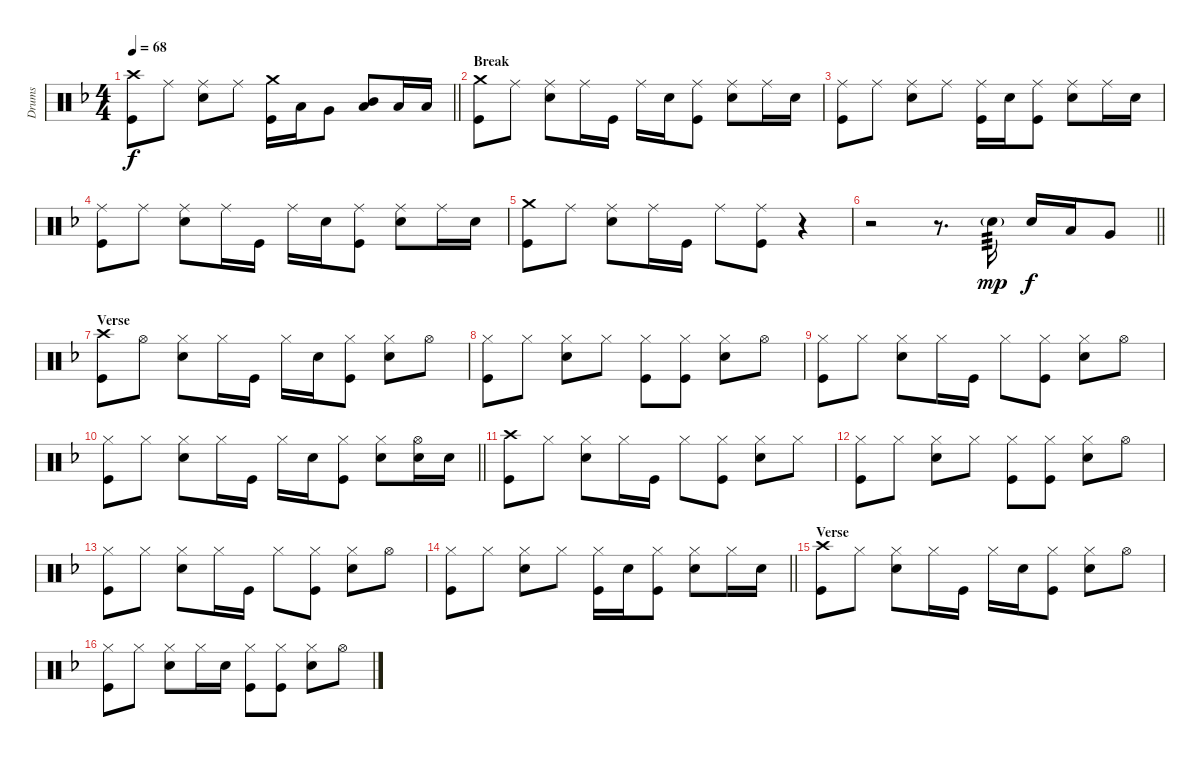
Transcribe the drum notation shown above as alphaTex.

\track ("Drums" "Drums") {instrument percussion}
\staff {score}
\articulation defaults
\ts (4 4)
\tempo 68
\clef neutral
\barLineRight lightlight
\ks f
("Crash high (hit)" "Kick (hit)").8{dy f} "Ride (middle)".8 ("Ride (middle)" "Snare (hit) 2").8 "Ride (middle)".8 ("Crash medium (hit)" "Kick (hit)").16 "Low Tom (hit)".16 "Very Low Tom (hit)".8 ("Mid Tom (hit)" "Low Tom (hit)").8 "Low Floor Tom (hit)".16 "Low Floor Tom (hit)".16 |
\section ("" "Break")
("Crash medium (hit)" "Kick (hit)").8 "Ride (middle)".8 ("Ride (middle)" "Snare (hit) 2").8 "Ride (middle)".16 "Kick (hit)".16 "Ride (middle)".16 "Snare (hit) 2".16 ("Ride (middle)" "Kick (hit)").8 ("Ride (middle)" "Snare (hit) 2").8 "Ride (middle)".16 "Snare (hit) 2".16 |
("Ride (middle)" "Kick (hit)").8 "Ride (middle)".8 ("Ride (middle)" "Snare (hit) 2").8 "Ride (middle)".8 ("Ride (middle)" "Kick (hit)").16 "Snare (hit) 2".16 ("Ride (middle)" "Kick (hit)").8 ("Ride (middle)" "Snare (hit) 2").8 "Ride (middle)".16 "Snare (hit) 2".16 |
("Ride (middle)" "Kick (hit)").8 "Ride (middle)".8 ("Ride (middle)" "Snare (hit) 2").8 "Ride (middle)".16 "Kick (hit)".16 "Ride (middle)".16 "Snare (hit) 2".16 ("Ride (middle)" "Kick (hit)").8 ("Ride (middle)" "Snare (hit) 2").8 "Ride (middle)".16 "Snare (hit) 2".16 |
("Crash medium (hit)" "Kick (hit)").8 "Ride (middle)".8 ("Ride (middle)" "Snare (hit) 2").8 "Ride (middle)".16 "Kick (hit)".16 "Ride (middle)".8 ("Ride (middle)" "Kick (hit)").8 r.4 |
\barLineRight lightlight
r.2 r.8{d} "Snare (hit) 2"{g}.16{tp 3 dy mp} "Snare (hit) 2".16{dy f} "Low Tom (hit)".16 "Very Low Tom (hit)".8 |
\section ("" "Verse")
("Crash high (hit)" "Kick (hit)").8 "Hi-Hat (open)".8 ("Hi-Hat (closed)" "Snare (hit) 2").8 "Hi-Hat (closed)".16 "Kick (hit)".16 "Hi-Hat (closed)".16 "Snare (hit) 2".16 ("Hi-Hat (closed)" "Kick (hit)").8 ("Hi-Hat (closed)" "Snare (hit) 2").8 "Hi-Hat (open)".8 |
("Hi-Hat (closed)" "Kick (hit)").8 "Hi-Hat (closed)".8 ("Hi-Hat (closed)" "Snare (hit) 2").8 "Hi-Hat (closed)".8 ("Hi-Hat (closed)" "Kick (hit)").8 ("Hi-Hat (closed)" "Kick (hit)").8 ("Hi-Hat (closed)" "Snare (hit) 2").8 "Hi-Hat (open)".8 |
("Hi-Hat (closed)" "Kick (hit)").8 "Hi-Hat (closed)".8 ("Hi-Hat (closed)" "Snare (hit) 2").8 "Hi-Hat (closed)".16 "Kick (hit)".16 "Hi-Hat (closed)".8 ("Hi-Hat (closed)" "Kick (hit)").8 ("Hi-Hat (closed)" "Snare (hit) 2").8 "Hi-Hat (open)".8 |
\barLineRight lightlight
("Hi-Hat (closed)" "Kick (hit)").8 "Hi-Hat (closed)".8 ("Hi-Hat (closed)" "Snare (hit) 2").8 "Hi-Hat (closed)".16 "Kick (hit)".16 "Hi-Hat (closed)".16 "Snare (hit) 2".16 ("Hi-Hat (closed)" "Kick (hit)").8 ("Hi-Hat (closed)" "Snare (hit) 2").8 ("Hi-Hat (open)" "Snare (hit) 2").16 "Snare (hit) 2".16 |
\section ("" "")
("Crash high (hit)" "Kick (hit)").8 "Hi-Hat (closed)".8 ("Hi-Hat (closed)" "Snare (hit) 2").8 "Hi-Hat (closed)".16 "Kick (hit)".16 "Hi-Hat (closed)".8 ("Hi-Hat (closed)" "Kick (hit)").8 ("Hi-Hat (closed)" "Snare (hit) 2").8 "Hi-Hat (closed)".8 |
("Hi-Hat (closed)" "Kick (hit)").8 "Hi-Hat (closed)".8 ("Hi-Hat (closed)" "Snare (hit) 2").8 "Hi-Hat (closed)".8 ("Hi-Hat (closed)" "Kick (hit)").8 ("Hi-Hat (closed)" "Kick (hit)").8 ("Hi-Hat (closed)" "Snare (hit) 2").8 "Hi-Hat (open)".8 |
("Hi-Hat (closed)" "Kick (hit)").8 "Hi-Hat (closed)".8 ("Hi-Hat (closed)" "Snare (hit) 2").8 "Hi-Hat (closed)".16 "Kick (hit)".16 "Hi-Hat (closed)".8 ("Hi-Hat (closed)" "Kick (hit)").8 ("Hi-Hat (closed)" "Snare (hit) 2").8 "Hi-Hat (open)".8 |
\barLineRight lightlight
("Hi-Hat (closed)" "Kick (hit)").8 "Hi-Hat (closed)".8 ("Hi-Hat (closed)" "Snare (hit) 2").8 "Hi-Hat (closed)".8 ("Hi-Hat (closed)" "Kick (hit)").16 "Snare (hit) 2".16 ("Hi-Hat (closed)" "Kick (hit)").8 ("Hi-Hat (closed)" "Snare (hit) 2").8 "Hi-Hat (closed)".16 "Snare (hit) 2".16 |
\section ("" "Verse")
("Crash high (hit)" "Kick (hit)").8 "Hi-Hat (closed)".8 ("Hi-Hat (closed)" "Snare (hit) 2").8 "Hi-Hat (closed)".16 "Kick (hit)".16 "Hi-Hat (closed)".16 "Snare (hit) 2".16 ("Hi-Hat (closed)" "Kick (hit)").8 ("Hi-Hat (closed)" "Snare (hit) 2").8 "Hi-Hat (open)".8 |
("Hi-Hat (closed)" "Kick (hit)").8 "Hi-Hat (closed)".8 ("Hi-Hat (closed)" "Snare (hit) 2").8 "Hi-Hat (closed)".16 "Snare (hit) 2".16 ("Hi-Hat (closed)" "Kick (hit)").8 ("Hi-Hat (closed)" "Kick (hit)").8 ("Hi-Hat (closed)" "Snare (hit) 2").8 "Hi-Hat (open)".8
